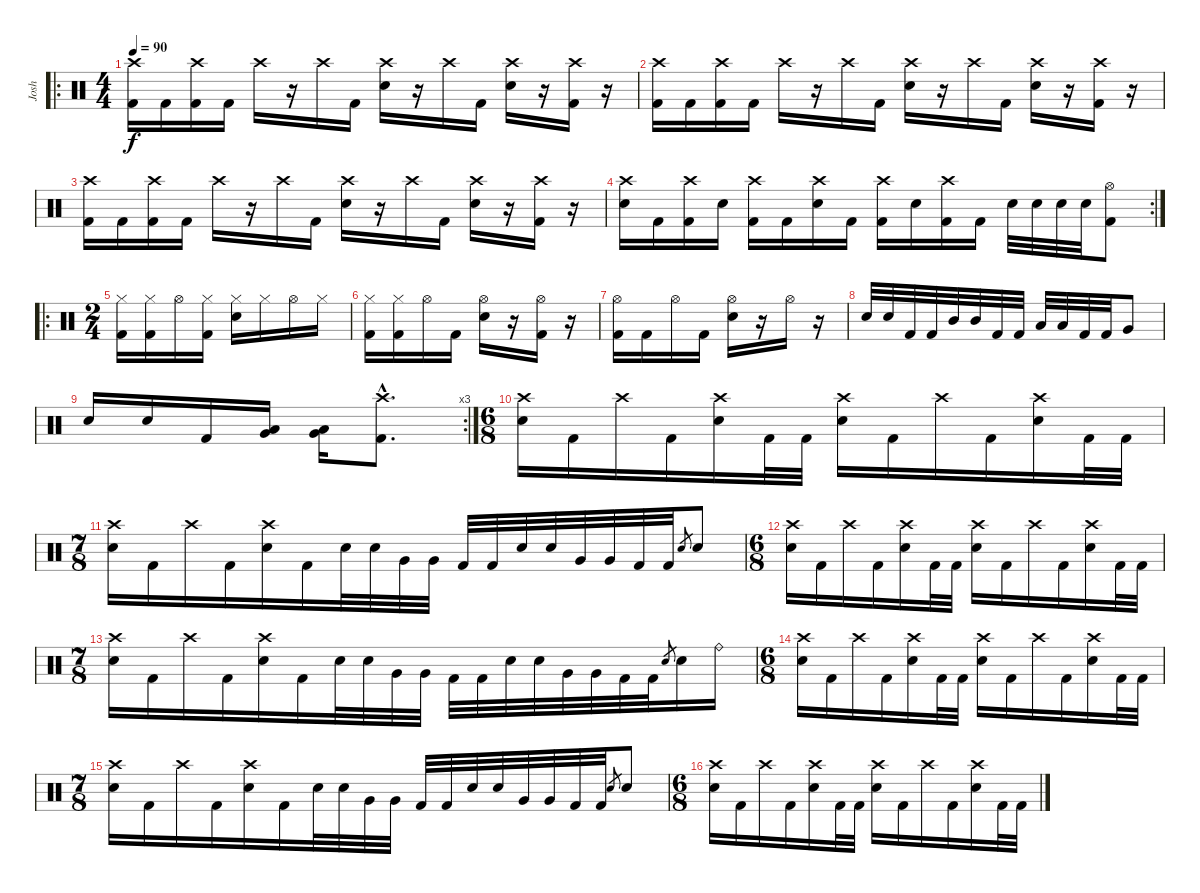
\track ("Josh" "Josh") {instrument percussion}
\staff {score}
\articulation defaults
\ro
\ts (4 4)
\tempo 90
\clef neutral
\ks c
("Crash high (hit)" "Kick (hit) 2").16{dy f} "Kick (hit) 2".16 ("Crash high (hit)" "Kick (hit) 2").16 "Kick (hit) 2".16 "Crash high (hit)".16 r.16 "Crash high (hit)".16 "Kick (hit) 2".16 ("Crash high (hit)" "Electric Snare (hit)").16 r.16 "Crash high (hit)".16 "Kick (hit) 2".16 ("Crash high (hit)" "Electric Snare (hit)").16 r.16 ("Crash high (hit)" "Kick (hit) 2").16 r.16 |
("Crash high (hit)" "Kick (hit) 2").16 "Kick (hit) 2".16 ("Crash high (hit)" "Kick (hit) 2").16 "Kick (hit) 2".16 "Crash high (hit)".16 r.16 "Crash high (hit)".16 "Kick (hit) 2".16 ("Crash high (hit)" "Electric Snare (hit)").16 r.16 "Crash high (hit)".16 "Kick (hit) 2".16 ("Crash high (hit)" "Electric Snare (hit)").16 r.16 ("Crash high (hit)" "Kick (hit) 2").16 r.16 |
("Crash high (hit)" "Kick (hit) 2").16 "Kick (hit) 2".16 ("Crash high (hit)" "Kick (hit) 2").16 "Kick (hit) 2".16 "Crash high (hit)".16 r.16 "Crash high (hit)".16 "Kick (hit) 2".16 ("Crash high (hit)" "Electric Snare (hit)").16 r.16 "Crash high (hit)".16 "Kick (hit) 2".16 ("Crash high (hit)" "Electric Snare (hit)").16 r.16 ("Crash high (hit)" "Kick (hit) 2").16 r.16 |
\rc 2
("Crash high (hit)" "Electric Snare (hit)").16 "Kick (hit) 2".16 ("Crash high (hit)" "Kick (hit) 2").16 "Electric Snare (hit)".16 ("Crash high (hit)" "Kick (hit) 2").16 "Kick (hit) 2".16 ("Crash high (hit)" "Electric Snare (hit)").16 "Kick (hit) 2".16 ("Crash high (hit)" "Kick (hit) 2").16 "Electric Snare (hit)".16 ("Crash high (hit)" "Kick (hit) 2").16 "Kick (hit) 2".16 "Electric Snare (hit)".32 "Electric Snare (hit)".32 "Electric Snare (hit)".32 "Electric Snare (hit)".32 ("Hi-Hat (open)" "Kick (hit) 2").8 |
\ro
\ts (2 4)
("Hi-Hat (closed)" "Kick (hit) 2").16 ("Hi-Hat (closed)" "Kick (hit) 2").16 "Hi-Hat (open)".16 ("Hi-Hat (closed)" "Kick (hit) 2").16 ("Hi-Hat (closed)" "Electric Snare (hit)").16 "Hi-Hat (closed)".16 "Hi-Hat (open)".16 "Hi-Hat (closed)".16 |
("Hi-Hat (closed)" "Kick (hit) 2").16 ("Hi-Hat (closed)" "Kick (hit) 2").16 "Hi-Hat (open)".16 "Kick (hit) 2".16 ("Hi-Hat (open)" "Electric Snare (hit)").16 r.16 ("Hi-Hat (open)" "Kick (hit) 2").16 r.16 |
("Hi-Hat (open)" "Kick (hit) 2").16 "Kick (hit) 2".16 "Hi-Hat (open)".16 "Kick (hit) 2".16 ("Hi-Hat (open)" "Electric Snare (hit)").16 r.16 "Hi-Hat (open)".16 r.16 |
"Electric Snare (hit)".32 "Electric Snare (hit)".32 "Kick (hit) 2".32 "Kick (hit) 2".32 "Mid Tom (hit)".32 "Mid Tom (hit)".32 "Kick (hit) 2".32 "Kick (hit) 2".32 "Low Tom (hit)".32 "Low Tom (hit)".32 "Kick (hit) 2".32 "Kick (hit) 2".32 "Very Low Tom (hit)".8 |
\rc 3 "Electric Snare (hit)".16 "Electric Snare (hit)".16 "Kick (hit) 2".16
("Very Low Tom (hit)" "Low Tom (hit)").16 ("Very Low Tom (hit)" "Low Tom (hit)").16 ("Crash high (hit)"{hac} "Kick (hit) 2"{hac}).8{d} |
\ts (6 8)
("Crash high (hit)" "Electric Snare (hit)").16 "Kick (hit) 2".16 "Crash high (hit)".16 "Kick (hit) 2".16 ("Crash high (hit)" "Electric Snare (hit)").16 "Kick (hit) 2".32 "Kick (hit) 2".32 ("Crash high (hit)" "Electric Snare (hit)").16 "Kick (hit) 2".16 "Crash high (hit)".16 "Kick (hit) 2".16 ("Crash high (hit)" "Electric Snare (hit)").16 "Kick (hit) 2".32 "Kick (hit) 2".32 |
\ts (7 8)
("Crash high (hit)" "Electric Snare (hit)").16 "Kick (hit) 2".16 "Crash high (hit)".16 "Kick (hit) 2".16 ("Crash high (hit)" "Electric Snare (hit)").16 "Kick (hit) 2".16 "Electric Snare (hit)".32 "Electric Snare (hit)".32 "Very Low Tom (hit)".32 "Very Low Tom (hit)".32 "Kick (hit) 2".32 "Kick (hit) 2".32 "Electric Snare (hit)".32 "Electric Snare (hit)".32 "Very Low Tom (hit)".32 "Very Low Tom (hit)".32 "Kick (hit) 2".32 "Kick (hit) 2".32 "Electric Snare (hit)".8{gr} "Electric Snare (hit)".8 |
\ts (6 8)
("Crash high (hit)" "Electric Snare (hit)").16 "Kick (hit) 2".16 "Crash high (hit)".16 "Kick (hit) 2".16 ("Crash high (hit)" "Electric Snare (hit)").16 "Kick (hit) 2".32 "Kick (hit) 2".32 ("Crash high (hit)" "Electric Snare (hit)").16 "Kick (hit) 2".16 "Crash high (hit)".16 "Kick (hit) 2".16 ("Crash high (hit)" "Electric Snare (hit)").16 "Kick (hit) 2".32 "Kick (hit) 2".32 |
\ts (7 8)
("Crash high (hit)" "Electric Snare (hit)").16 "Kick (hit) 2".16 "Crash high (hit)".16 "Kick (hit) 2".16 ("Crash high (hit)" "Electric Snare (hit)").16 "Kick (hit) 2".16 "Electric Snare (hit)".32 "Electric Snare (hit)".32 "Very Low Tom (hit)".32 "Very Low Tom (hit)".32 "Kick (hit) 2".32 "Kick (hit) 2".32 "Electric Snare (hit)".32 "Electric Snare (hit)".32 "Very Low Tom (hit)".32 "Very Low Tom (hit)".32 "Kick (hit) 2".32 "Kick (hit) 2".32 "Electric Snare (hit)".8{gr} "Electric Snare (hit)".16 "Ride (bell)".16 |
\ts (6 8)
("Crash high (hit)" "Electric Snare (hit)").16 "Kick (hit) 2".16 "Crash high (hit)".16 "Kick (hit) 2".16 ("Crash high (hit)" "Electric Snare (hit)").16 "Kick (hit) 2".32 "Kick (hit) 2".32 ("Crash high (hit)" "Electric Snare (hit)").16 "Kick (hit) 2".16 "Crash high (hit)".16 "Kick (hit) 2".16 ("Crash high (hit)" "Electric Snare (hit)").16 "Kick (hit) 2".32 "Kick (hit) 2".32 |
\ts (7 8)
("Crash high (hit)" "Electric Snare (hit)").16 "Kick (hit) 2".16 "Crash high (hit)".16 "Kick (hit) 2".16 ("Crash high (hit)" "Electric Snare (hit)").16 "Kick (hit) 2".16 "Electric Snare (hit)".32 "Electric Snare (hit)".32 "Very Low Tom (hit)".32 "Very Low Tom (hit)".32 "Kick (hit) 2".32 "Kick (hit) 2".32 "Electric Snare (hit)".32 "Electric Snare (hit)".32 "Very Low Tom (hit)".32 "Very Low Tom (hit)".32 "Kick (hit) 2".32 "Kick (hit) 2".32 "Electric Snare (hit)".8{gr} "Electric Snare (hit)".8 |
\ts (6 8)
("Crash high (hit)" "Electric Snare (hit)").16 "Kick (hit) 2".16 "Crash high (hit)".16 "Kick (hit) 2".16 ("Crash high (hit)" "Electric Snare (hit)").16 "Kick (hit) 2".32 "Kick (hit) 2".32 ("Crash high (hit)" "Electric Snare (hit)").16 "Kick (hit) 2".16 "Crash high (hit)".16 "Kick (hit) 2".16 ("Crash high (hit)" "Electric Snare (hit)").16 "Kick (hit) 2".32 "Kick (hit) 2".32
